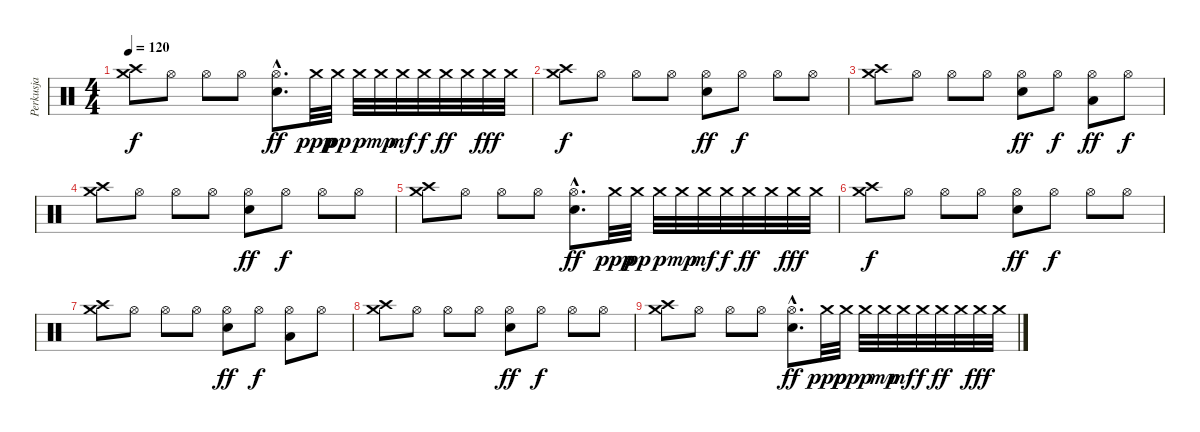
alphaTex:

\track ("Perkusja" "Perkusja") {instrument percussion}
\staff {score}
\articulation defaults
\ts (4 4)
\tempo 120
\clef neutral
\ks c
("Crash high (hit)" "Crash medium (hit)").8{dy f} "Hi-Hat (open)".8 "Hi-Hat (open)".8 "Hi-Hat (open)".8 ("Hi-Hat (open)"{hac} "Snare (hit) 2"{hac}).8{d dy ff} "Crash medium (hit)".32{dy ppp} "Crash medium (hit)".32{dy pp} "Crash medium (hit)".32{dy p} "Crash medium (hit)".32{dy mp} "Crash medium (hit)".32{dy mf} "Crash medium (hit)".32{dy f} "Crash medium (hit)".32{dy ff} "Crash medium (hit)".32 "Crash medium (hit)".32{dy fff} "Crash medium (hit)".32 |
("Crash high (hit)" "Crash medium (hit)").8{dy f} "Hi-Hat (open)".8 "Hi-Hat (open)".8 "Hi-Hat (open)".8 ("Hi-Hat (open)" "Snare (hit) 2").8{dy ff} "Hi-Hat (open)".8{dy f} "Hi-Hat (open)".8 "Hi-Hat (open)".8 |
("Crash high (hit)" "Crash medium (hit)").8 "Hi-Hat (open)".8 "Hi-Hat (open)".8 "Hi-Hat (open)".8 ("Hi-Hat (open)" "Snare (hit) 2").8{dy ff} "Hi-Hat (open)".8{dy f} ("Hi-Hat (open)" "Low Tom (hit)").8{dy ff} "Hi-Hat (open)".8{dy f} |
("Crash high (hit)" "Crash medium (hit)").8 "Hi-Hat (open)".8 "Hi-Hat (open)".8 "Hi-Hat (open)".8 ("Hi-Hat (open)" "Snare (hit) 2").8{dy ff} "Hi-Hat (open)".8{dy f} "Hi-Hat (open)".8 "Hi-Hat (open)".8 |
("Crash high (hit)" "Crash medium (hit)").8 "Hi-Hat (open)".8 "Hi-Hat (open)".8 "Hi-Hat (open)".8 ("Hi-Hat (open)"{hac} "Snare (hit) 2"{hac}).8{d dy ff} "Crash medium (hit)".32{dy ppp} "Crash medium (hit)".32{dy pp} "Crash medium (hit)".32{dy p} "Crash medium (hit)".32{dy mp} "Crash medium (hit)".32{dy mf} "Crash medium (hit)".32{dy f} "Crash medium (hit)".32{dy ff} "Crash medium (hit)".32 "Crash medium (hit)".32{dy fff} "Crash medium (hit)".32 |
("Crash high (hit)" "Crash medium (hit)").8{dy f} "Hi-Hat (open)".8 "Hi-Hat (open)".8 "Hi-Hat (open)".8 ("Hi-Hat (open)" "Snare (hit) 2").8{dy ff} "Hi-Hat (open)".8{dy f} "Hi-Hat (open)".8 "Hi-Hat (open)".8 |
("Crash high (hit)" "Crash medium (hit)").8 "Hi-Hat (open)".8 "Hi-Hat (open)".8 "Hi-Hat (open)".8 ("Hi-Hat (open)" "Snare (hit) 2").8{dy ff} "Hi-Hat (open)".8{dy f} ("Hi-Hat (open)" "Low Tom (hit)").8 "Hi-Hat (open)".8 |
("Crash high (hit)" "Crash medium (hit)").8 "Hi-Hat (open)".8 "Hi-Hat (open)".8 "Hi-Hat (open)".8 ("Hi-Hat (open)" "Snare (hit) 2").8{dy ff} "Hi-Hat (open)".8{dy f} "Hi-Hat (open)".8 "Hi-Hat (open)".8 |
("Crash high (hit)" "Crash medium (hit)").8 "Hi-Hat (open)".8 "Hi-Hat (open)".8 "Hi-Hat (open)".8 ("Hi-Hat (open)"{hac} "Snare (hit) 2"{hac}).8{d dy ff} "Crash medium (hit)".32{dy ppp} "Crash medium (hit)".32{dy pp} "Crash medium (hit)".32{dy p} "Crash medium (hit)".32{dy mp} "Crash medium (hit)".32{dy mf} "Crash medium (hit)".32{dy f} "Crash medium (hit)".32{dy ff} "Crash medium (hit)".32 "Crash medium (hit)".32{dy fff} "Crash medium (hit)".32
